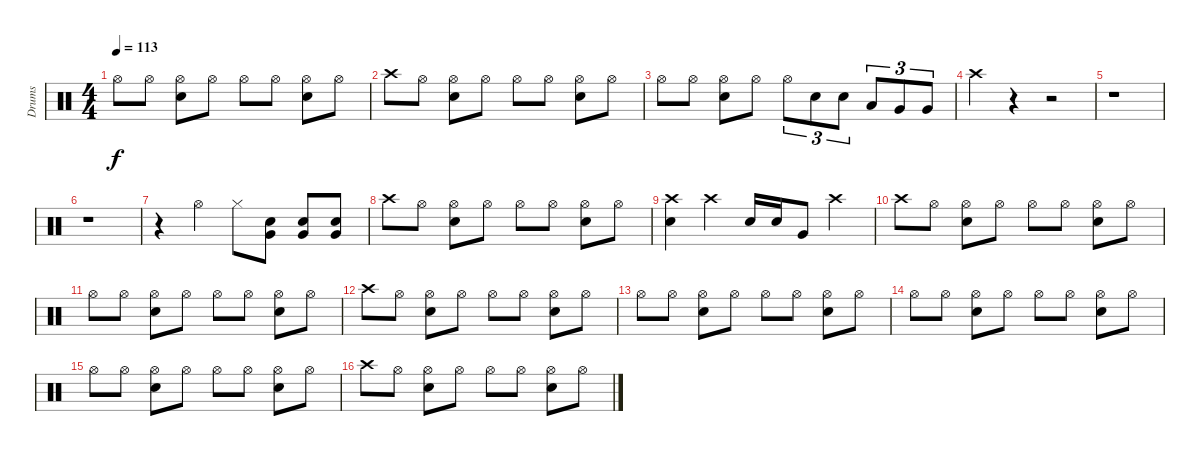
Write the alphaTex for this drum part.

\track ("Drums" "Drums") {instrument percussion}
\staff {score}
\articulation defaults
\ts (4 4)
\tempo 113
\clef neutral
\ks c "Hi-Hat (open)".8{dy f} "Hi-Hat (open)".8
("Hi-Hat (open)" "Snare (hit) 2").8 "Hi-Hat (open)".8 "Hi-Hat (open)".8 "Hi-Hat (open)".8 ("Hi-Hat (open)" "Snare (hit) 2").8 "Hi-Hat (open)".8 |
"Crash high (hit)".8 "Hi-Hat (open)".8 ("Hi-Hat (open)" "Snare (hit) 2").8 "Hi-Hat (open)".8 "Hi-Hat (open)".8 "Hi-Hat (open)".8 ("Hi-Hat (open)" "Snare (hit) 2").8 "Hi-Hat (open)".8 |
"Hi-Hat (open)".8 "Hi-Hat (open)".8 ("Hi-Hat (open)" "Snare (hit) 2").8 "Hi-Hat (open)".8 "Hi-Hat (open)".8{tu (3 2)} "Snare (hit) 2".8{tu (3 2)} "Snare (hit) 2".8{tu (3 2)} "Low Tom (hit)".8{tu (3 2)} "Very Low Tom (hit)".8{tu (3 2)} "Very Low Tom (hit)".8{tu (3 2)} |
"Crash high (hit)".4 r.4 r.2 |
r.1 |
r.1 |
r.4 "Hi-Hat (open)".4 "Hi-Hat (closed)".8 ("Snare (hit) 2" "Very Low Tom (hit)").8 ("Snare (hit) 2" "Very Low Tom (hit)").8 ("Snare (hit) 2" "Very Low Tom (hit)").8 |
"Crash high (hit)".8 "Hi-Hat (open)".8 ("Hi-Hat (open)" "Snare (hit) 2").8 "Hi-Hat (open)".8 "Hi-Hat (open)".8 "Hi-Hat (open)".8 ("Hi-Hat (open)" "Snare (hit) 2").8 "Hi-Hat (open)".8 |
("Crash high (hit)" "Snare (hit) 2").4 "Crash high (hit)".4 "Snare (hit) 2".16 "Snare (hit) 2".16 "Very Low Tom (hit)".8 "Crash high (hit)".4 |
"Crash high (hit)".8 "Hi-Hat (open)".8 ("Hi-Hat (open)" "Snare (hit) 2").8 "Hi-Hat (open)".8 "Hi-Hat (open)".8 "Hi-Hat (open)".8 ("Hi-Hat (open)" "Snare (hit) 2").8 "Hi-Hat (open)".8 |
"Hi-Hat (open)".8 "Hi-Hat (open)".8 ("Hi-Hat (open)" "Snare (hit) 2").8 "Hi-Hat (open)".8 "Hi-Hat (open)".8 "Hi-Hat (open)".8 ("Hi-Hat (open)" "Snare (hit) 2").8 "Hi-Hat (open)".8 |
"Crash high (hit)".8 "Hi-Hat (open)".8 ("Hi-Hat (open)" "Snare (hit) 2").8 "Hi-Hat (open)".8 "Hi-Hat (open)".8 "Hi-Hat (open)".8 ("Hi-Hat (open)" "Snare (hit) 2").8 "Hi-Hat (open)".8 |
"Hi-Hat (open)".8 "Hi-Hat (open)".8 ("Hi-Hat (open)" "Snare (hit) 2").8 "Hi-Hat (open)".8 "Hi-Hat (open)".8 "Hi-Hat (open)".8 ("Hi-Hat (open)" "Snare (hit) 2").8 "Hi-Hat (open)".8 |
"Hi-Hat (open)".8 "Hi-Hat (open)".8 ("Hi-Hat (open)" "Snare (hit) 2").8 "Hi-Hat (open)".8 "Hi-Hat (open)".8 "Hi-Hat (open)".8 ("Hi-Hat (open)" "Snare (hit) 2").8 "Hi-Hat (open)".8 |
"Hi-Hat (open)".8 "Hi-Hat (open)".8 ("Hi-Hat (open)" "Snare (hit) 2").8 "Hi-Hat (open)".8 "Hi-Hat (open)".8 "Hi-Hat (open)".8 ("Hi-Hat (open)" "Snare (hit) 2").8 "Hi-Hat (open)".8 |
"Crash high (hit)".8 "Hi-Hat (open)".8 ("Hi-Hat (open)" "Snare (hit) 2").8 "Hi-Hat (open)".8 "Hi-Hat (open)".8 "Hi-Hat (open)".8 ("Hi-Hat (open)" "Snare (hit) 2").8 "Hi-Hat (open)".8
